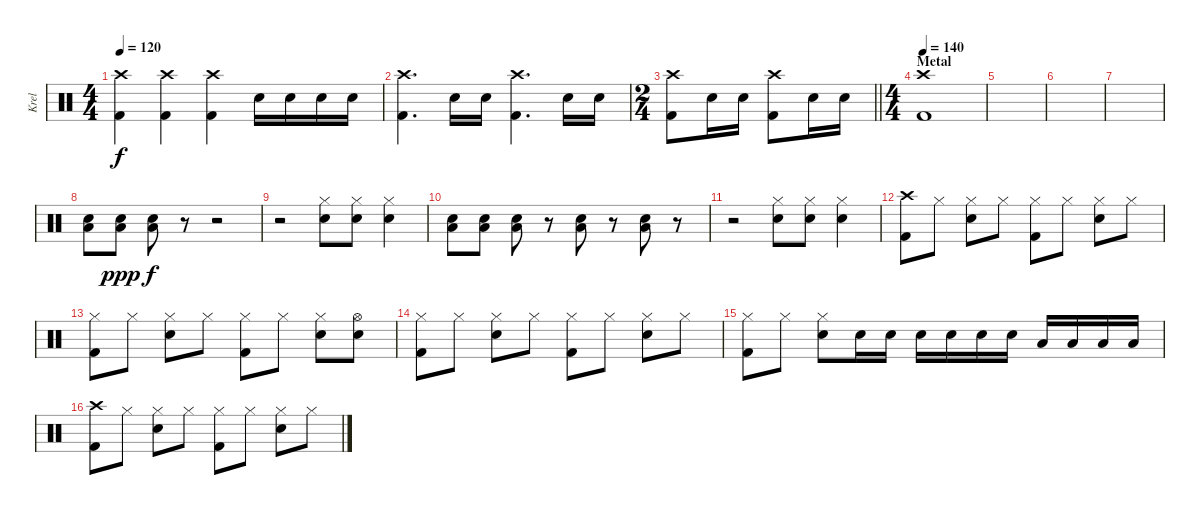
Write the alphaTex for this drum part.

\track ("Krel" "Krel") {instrument percussion}
\staff {score}
\articulation defaults
\ts (4 4)
\tempo 120
\clef neutral
\ks c
("Crash high (hit)" "Kick (hit) 2").4{dy f} ("Crash high (hit)" "Kick (hit) 2").4 ("Crash high (hit)" "Kick (hit) 2").4 "Snare (hit) 2".16 "Snare (hit) 2".16 "Snare (hit) 2".16 "Snare (hit) 2".16 |
("Crash high (hit)" "Kick (hit) 2").4{d} "Snare (hit) 2".16 "Snare (hit) 2".16 ("Crash high (hit)" "Kick (hit) 2").4{d} "Snare (hit) 2".16 "Snare (hit) 2".16 |
\ts (2 4)
\barLineRight lightlight
("Crash high (hit)" "Kick (hit) 2").8 "Snare (hit) 2".16 "Snare (hit) 2".16 ("Crash high (hit)" "Kick (hit) 2").8 "Snare (hit) 2".16 "Snare (hit) 2".16 |
\ts (4 4)
\section ("" "Metal")
\tempo 140
("Crash high (hit)" "Kick (hit) 2").1 |
|
|
|
("Low Tom (hit)" "Snare (hit) 2").8 ("Low Tom (hit)" "Snare (hit) 2").8{dy ppp} ("Low Tom (hit)" "Snare (hit) 2").8{dy f} r.8 r.2 |
r.2 ("Hi-Hat (closed)" "Snare (hit) 2").8 ("Hi-Hat (closed)" "Snare (hit) 2").8 ("Hi-Hat (closed)" "Snare (hit) 2").4 |
("Low Tom (hit)" "Snare (hit) 2").8 ("Low Tom (hit)" "Snare (hit) 2").8 ("Low Tom (hit)" "Snare (hit) 2").8 r.8 ("Low Tom (hit)" "Snare (hit) 2").8 r.8 ("Low Tom (hit)" "Snare (hit) 2").8 r.8 |
r.2 ("Hi-Hat (closed)" "Snare (hit) 2").8 ("Hi-Hat (closed)" "Snare (hit) 2").8 ("Hi-Hat (closed)" "Snare (hit) 2").4 |
("Crash high (hit)" "Kick (hit) 2").8 "Hi-Hat (closed)".8 ("Hi-Hat (closed)" "Snare (hit) 2").8 "Hi-Hat (closed)".8 ("Hi-Hat (closed)" "Kick (hit) 2").8 "Hi-Hat (closed)".8 ("Hi-Hat (closed)" "Snare (hit) 2").8 "Hi-Hat (closed)".8 |
("Hi-Hat (closed)" "Kick (hit) 2").8 "Hi-Hat (closed)".8 ("Hi-Hat (closed)" "Snare (hit) 2").8 "Hi-Hat (closed)".8 ("Hi-Hat (closed)" "Kick (hit) 2").8 "Hi-Hat (closed)".8 ("Hi-Hat (closed)" "Snare (hit) 2").8 ("Hi-Hat (open)" "Snare (hit) 2").8 |
("Hi-Hat (closed)" "Kick (hit) 2").8 "Hi-Hat (closed)".8 ("Hi-Hat (closed)" "Snare (hit) 2").8 "Hi-Hat (closed)".8 ("Hi-Hat (closed)" "Kick (hit) 2").8 "Hi-Hat (closed)".8 ("Hi-Hat (closed)" "Snare (hit) 2").8 "Hi-Hat (closed)".8 |
("Hi-Hat (closed)" "Kick (hit) 2").8 "Hi-Hat (closed)".8 ("Hi-Hat (closed)" "Snare (hit) 2").8 "Snare (hit) 2".16 "Snare (hit) 2".16 "Snare (hit) 2".16 "Snare (hit) 2".16 "Snare (hit) 2".16 "Snare (hit) 2".16 "Low Tom (hit)".16 "Low Tom (hit)".16 "Low Tom (hit)".16 "Low Tom (hit)".16 |
("Crash high (hit)" "Kick (hit) 2").8 "Hi-Hat (closed)".8 ("Hi-Hat (closed)" "Snare (hit) 2").8 "Hi-Hat (closed)".8 ("Hi-Hat (closed)" "Kick (hit) 2").8 "Hi-Hat (closed)".8 ("Hi-Hat (closed)" "Snare (hit) 2").8 "Hi-Hat (closed)".8
